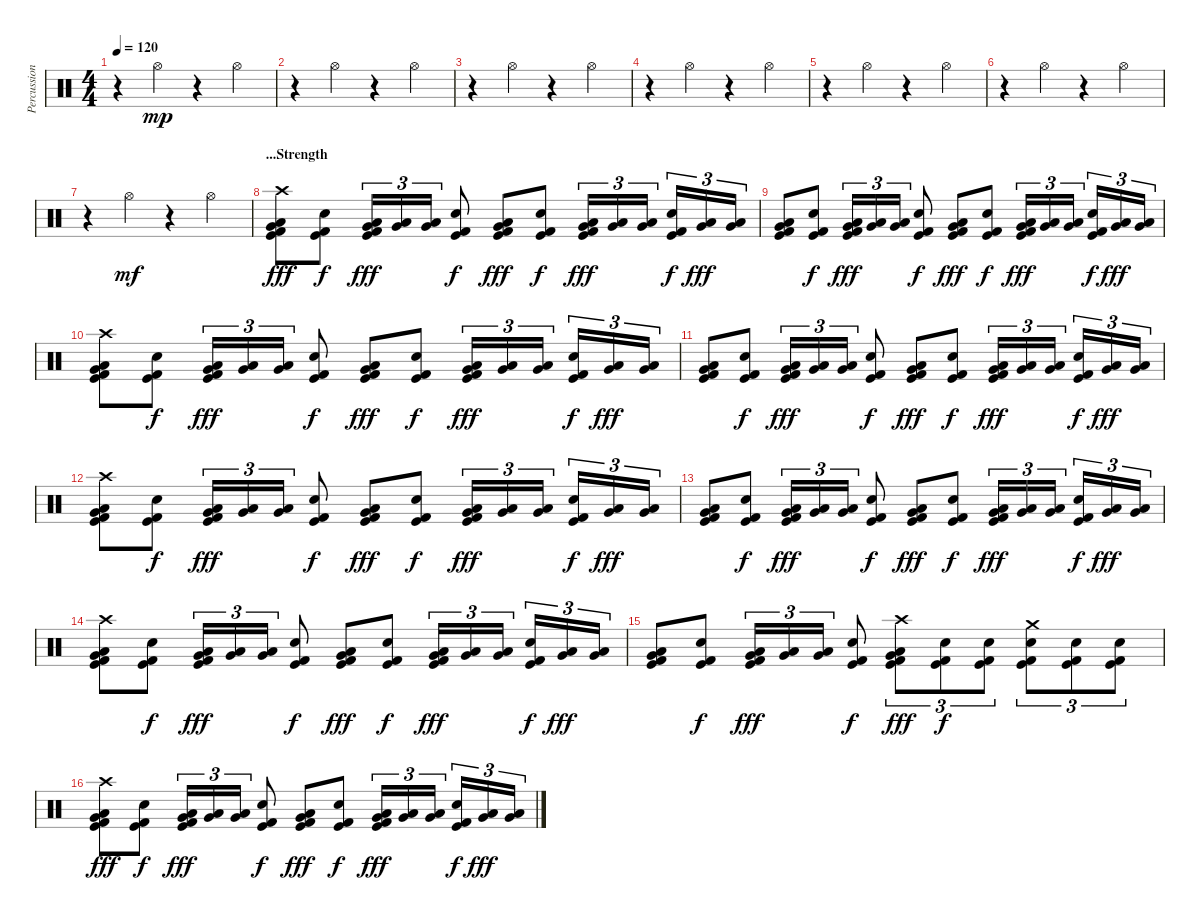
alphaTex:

\track ("Percussion" "Percussion") {instrument percussion}
\staff {score}
\articulation defaults
\ts (4 4)
\tempo 120
\clef neutral
\ks c
r.4{dy mp} "Hi-Hat (open)".4 r.4 "Hi-Hat (open)".4 |
r.4 "Hi-Hat (open)".4 r.4 "Hi-Hat (open)".4 |
r.4 "Hi-Hat (open)".4 r.4 "Hi-Hat (open)".4 |
r.4 "Hi-Hat (open)".4 r.4 "Hi-Hat (open)".4 |
r.4 "Hi-Hat (open)".4 r.4 "Hi-Hat (open)".4 |
r.4 "Hi-Hat (open)".4 r.4 "Hi-Hat (open)".4 |
r.4 "Hi-Hat (open)".4{dy mf} r.4 "Hi-Hat (open)".4 |
\section ("" "...Strength")
("Crash high (hit)" "Low Tom (hit)" "Very Low Tom (hit)" "Kick (hit)" "Kick (hit) 2").8{dy fff} ("Snare (hit) 2" "Kick (hit)" "Kick (hit) 2").8{dy f} ("Low Tom (hit)" "Very Low Tom (hit)" "Kick (hit)" "Kick (hit) 2").16{tu (3 2) dy fff} ("Low Tom (hit)" "Very Low Tom (hit)").16{tu (3 2)} ("Low Tom (hit)" "Very Low Tom (hit)").16{tu (3 2)} ("Snare (hit) 2" "Kick (hit)" "Kick (hit) 2").8{dy f} ("Low Tom (hit)" "Very Low Tom (hit)" "Kick (hit)" "Kick (hit) 2").8{dy fff} ("Snare (hit) 2" "Kick (hit)" "Kick (hit) 2").8{dy f} ("Low Tom (hit)" "Very Low Tom (hit)" "Kick (hit)" "Kick (hit) 2").16{tu (3 2) dy fff} ("Low Tom (hit)" "Very Low Tom (hit)").16{tu (3 2)} ("Low Tom (hit)" "Very Low Tom (hit)").16{tu (3 2)} ("Snare (hit) 2" "Kick (hit)" "Kick (hit) 2").16{tu (3 2) dy f} ("Low Tom (hit)" "Very Low Tom (hit)").16{tu (3 2) dy fff} ("Low Tom (hit)" "Very Low Tom (hit)").16{tu (3 2)} |
("Low Tom (hit)" "Very Low Tom (hit)" "Kick (hit)" "Kick (hit) 2").8 ("Snare (hit) 2" "Kick (hit)" "Kick (hit) 2").8{dy f} ("Low Tom (hit)" "Very Low Tom (hit)" "Kick (hit)" "Kick (hit) 2").16{tu (3 2) dy fff} ("Low Tom (hit)" "Very Low Tom (hit)").16{tu (3 2)} ("Low Tom (hit)" "Very Low Tom (hit)").16{tu (3 2)} ("Snare (hit) 2" "Kick (hit)" "Kick (hit) 2").8{dy f} ("Low Tom (hit)" "Very Low Tom (hit)" "Kick (hit)" "Kick (hit) 2").8{dy fff} ("Snare (hit) 2" "Kick (hit)" "Kick (hit) 2").8{dy f} ("Low Tom (hit)" "Very Low Tom (hit)" "Kick (hit)" "Kick (hit) 2").16{tu (3 2) dy fff} ("Low Tom (hit)" "Very Low Tom (hit)").16{tu (3 2)} ("Low Tom (hit)" "Very Low Tom (hit)").16{tu (3 2)} ("Snare (hit) 2" "Kick (hit)" "Kick (hit) 2").16{tu (3 2) dy f} ("Low Tom (hit)" "Very Low Tom (hit)").16{tu (3 2) dy fff} ("Low Tom (hit)" "Very Low Tom (hit)").16{tu (3 2)} |
("Crash high (hit)" "Low Tom (hit)" "Very Low Tom (hit)" "Kick (hit)" "Kick (hit) 2").8 ("Snare (hit) 2" "Kick (hit)" "Kick (hit) 2").8{dy f} ("Low Tom (hit)" "Very Low Tom (hit)" "Kick (hit)" "Kick (hit) 2").16{tu (3 2) dy fff} ("Low Tom (hit)" "Very Low Tom (hit)").16{tu (3 2)} ("Low Tom (hit)" "Very Low Tom (hit)").16{tu (3 2)} ("Snare (hit) 2" "Kick (hit)" "Kick (hit) 2").8{dy f} ("Low Tom (hit)" "Very Low Tom (hit)" "Kick (hit)" "Kick (hit) 2").8{dy fff} ("Snare (hit) 2" "Kick (hit)" "Kick (hit) 2").8{dy f} ("Low Tom (hit)" "Very Low Tom (hit)" "Kick (hit)" "Kick (hit) 2").16{tu (3 2) dy fff} ("Low Tom (hit)" "Very Low Tom (hit)").16{tu (3 2)} ("Low Tom (hit)" "Very Low Tom (hit)").16{tu (3 2)} ("Snare (hit) 2" "Kick (hit)" "Kick (hit) 2").16{tu (3 2) dy f} ("Low Tom (hit)" "Very Low Tom (hit)").16{tu (3 2) dy fff} ("Low Tom (hit)" "Very Low Tom (hit)").16{tu (3 2)} |
("Low Tom (hit)" "Very Low Tom (hit)" "Kick (hit)" "Kick (hit) 2").8 ("Snare (hit) 2" "Kick (hit)" "Kick (hit) 2").8{dy f} ("Low Tom (hit)" "Very Low Tom (hit)" "Kick (hit)" "Kick (hit) 2").16{tu (3 2) dy fff} ("Low Tom (hit)" "Very Low Tom (hit)").16{tu (3 2)} ("Low Tom (hit)" "Very Low Tom (hit)").16{tu (3 2)} ("Snare (hit) 2" "Kick (hit)" "Kick (hit) 2").8{dy f} ("Low Tom (hit)" "Very Low Tom (hit)" "Kick (hit)" "Kick (hit) 2").8{dy fff} ("Snare (hit) 2" "Kick (hit)" "Kick (hit) 2").8{dy f} ("Low Tom (hit)" "Very Low Tom (hit)" "Kick (hit)" "Kick (hit) 2").16{tu (3 2) dy fff} ("Low Tom (hit)" "Very Low Tom (hit)").16{tu (3 2)} ("Low Tom (hit)" "Very Low Tom (hit)").16{tu (3 2)} ("Snare (hit) 2" "Kick (hit)" "Kick (hit) 2").16{tu (3 2) dy f} ("Low Tom (hit)" "Very Low Tom (hit)").16{tu (3 2) dy fff} ("Low Tom (hit)" "Very Low Tom (hit)").16{tu (3 2)} |
("Crash high (hit)" "Low Tom (hit)" "Very Low Tom (hit)" "Kick (hit)" "Kick (hit) 2").8 ("Snare (hit) 2" "Kick (hit)" "Kick (hit) 2").8{dy f} ("Low Tom (hit)" "Very Low Tom (hit)" "Kick (hit)" "Kick (hit) 2").16{tu (3 2) dy fff} ("Low Tom (hit)" "Very Low Tom (hit)").16{tu (3 2)} ("Low Tom (hit)" "Very Low Tom (hit)").16{tu (3 2)} ("Snare (hit) 2" "Kick (hit)" "Kick (hit) 2").8{dy f} ("Low Tom (hit)" "Very Low Tom (hit)" "Kick (hit)" "Kick (hit) 2").8{dy fff} ("Snare (hit) 2" "Kick (hit)" "Kick (hit) 2").8{dy f} ("Low Tom (hit)" "Very Low Tom (hit)" "Kick (hit)" "Kick (hit) 2").16{tu (3 2) dy fff} ("Low Tom (hit)" "Very Low Tom (hit)").16{tu (3 2)} ("Low Tom (hit)" "Very Low Tom (hit)").16{tu (3 2)} ("Snare (hit) 2" "Kick (hit)" "Kick (hit) 2").16{tu (3 2) dy f} ("Low Tom (hit)" "Very Low Tom (hit)").16{tu (3 2) dy fff} ("Low Tom (hit)" "Very Low Tom (hit)").16{tu (3 2)} |
("Low Tom (hit)" "Very Low Tom (hit)" "Kick (hit)" "Kick (hit) 2").8 ("Snare (hit) 2" "Kick (hit)" "Kick (hit) 2").8{dy f} ("Low Tom (hit)" "Very Low Tom (hit)" "Kick (hit)" "Kick (hit) 2").16{tu (3 2) dy fff} ("Low Tom (hit)" "Very Low Tom (hit)").16{tu (3 2)} ("Low Tom (hit)" "Very Low Tom (hit)").16{tu (3 2)} ("Snare (hit) 2" "Kick (hit)" "Kick (hit) 2").8{dy f} ("Low Tom (hit)" "Very Low Tom (hit)" "Kick (hit)" "Kick (hit) 2").8{dy fff} ("Snare (hit) 2" "Kick (hit)" "Kick (hit) 2").8{dy f} ("Low Tom (hit)" "Very Low Tom (hit)" "Kick (hit)" "Kick (hit) 2").16{tu (3 2) dy fff} ("Low Tom (hit)" "Very Low Tom (hit)").16{tu (3 2)} ("Low Tom (hit)" "Very Low Tom (hit)").16{tu (3 2)} ("Snare (hit) 2" "Kick (hit)" "Kick (hit) 2").16{tu (3 2) dy f} ("Low Tom (hit)" "Very Low Tom (hit)").16{tu (3 2) dy fff} ("Low Tom (hit)" "Very Low Tom (hit)").16{tu (3 2)} |
("Crash high (hit)" "Low Tom (hit)" "Very Low Tom (hit)" "Kick (hit)" "Kick (hit) 2").8 ("Snare (hit) 2" "Kick (hit)" "Kick (hit) 2").8{dy f} ("Low Tom (hit)" "Very Low Tom (hit)" "Kick (hit)" "Kick (hit) 2").16{tu (3 2) dy fff} ("Low Tom (hit)" "Very Low Tom (hit)").16{tu (3 2)} ("Low Tom (hit)" "Very Low Tom (hit)").16{tu (3 2)} ("Snare (hit) 2" "Kick (hit)" "Kick (hit) 2").8{dy f} ("Low Tom (hit)" "Very Low Tom (hit)" "Kick (hit)" "Kick (hit) 2").8{dy fff} ("Snare (hit) 2" "Kick (hit)" "Kick (hit) 2").8{dy f} ("Low Tom (hit)" "Very Low Tom (hit)" "Kick (hit)" "Kick (hit) 2").16{tu (3 2) dy fff} ("Low Tom (hit)" "Very Low Tom (hit)").16{tu (3 2)} ("Low Tom (hit)" "Very Low Tom (hit)").16{tu (3 2)} ("Snare (hit) 2" "Kick (hit)" "Kick (hit) 2").16{tu (3 2) dy f} ("Low Tom (hit)" "Very Low Tom (hit)").16{tu (3 2) dy fff} ("Low Tom (hit)" "Very Low Tom (hit)").16{tu (3 2)} |
("Low Tom (hit)" "Very Low Tom (hit)" "Kick (hit)" "Kick (hit) 2").8 ("Snare (hit) 2" "Kick (hit)" "Kick (hit) 2").8{dy f} ("Low Tom (hit)" "Very Low Tom (hit)" "Kick (hit)" "Kick (hit) 2").16{tu (3 2) dy fff} ("Low Tom (hit)" "Very Low Tom (hit)").16{tu (3 2)} ("Low Tom (hit)" "Very Low Tom (hit)").16{tu (3 2)} ("Snare (hit) 2" "Kick (hit)" "Kick (hit) 2").8{dy f} ("Crash high (hit)" "Low Tom (hit)" "Very Low Tom (hit)" "Kick (hit)" "Kick (hit) 2").8{tu (3 2) dy fff} ("Snare (hit) 2" "Kick (hit)" "Kick (hit) 2").8{tu (3 2) dy f} ("Snare (hit) 2" "Kick (hit)" "Kick (hit) 2").8{tu (3 2)} ("Crash medium (hit)" "Snare (hit) 2" "Kick (hit)" "Kick (hit) 2").8{tu (3 2)} ("Snare (hit) 2" "Kick (hit)" "Kick (hit) 2").8{tu (3 2)} ("Snare (hit) 2" "Kick (hit)" "Kick (hit) 2").8{tu (3 2)} |
("Crash high (hit)" "Low Tom (hit)" "Very Low Tom (hit)" "Kick (hit)" "Kick (hit) 2").8{dy fff} ("Snare (hit) 2" "Kick (hit)" "Kick (hit) 2").8{dy f} ("Low Tom (hit)" "Very Low Tom (hit)" "Kick (hit)" "Kick (hit) 2").16{tu (3 2) dy fff} ("Low Tom (hit)" "Very Low Tom (hit)").16{tu (3 2)} ("Low Tom (hit)" "Very Low Tom (hit)").16{tu (3 2)} ("Snare (hit) 2" "Kick (hit)" "Kick (hit) 2").8{dy f} ("Low Tom (hit)" "Very Low Tom (hit)" "Kick (hit)" "Kick (hit) 2").8{dy fff} ("Snare (hit) 2" "Kick (hit)" "Kick (hit) 2").8{dy f} ("Low Tom (hit)" "Very Low Tom (hit)" "Kick (hit)" "Kick (hit) 2").16{tu (3 2) dy fff} ("Low Tom (hit)" "Very Low Tom (hit)").16{tu (3 2)} ("Low Tom (hit)" "Very Low Tom (hit)").16{tu (3 2)} ("Snare (hit) 2" "Kick (hit)" "Kick (hit) 2").16{tu (3 2) dy f} ("Low Tom (hit)" "Very Low Tom (hit)").16{tu (3 2) dy fff} ("Low Tom (hit)" "Very Low Tom (hit)").16{tu (3 2)}
